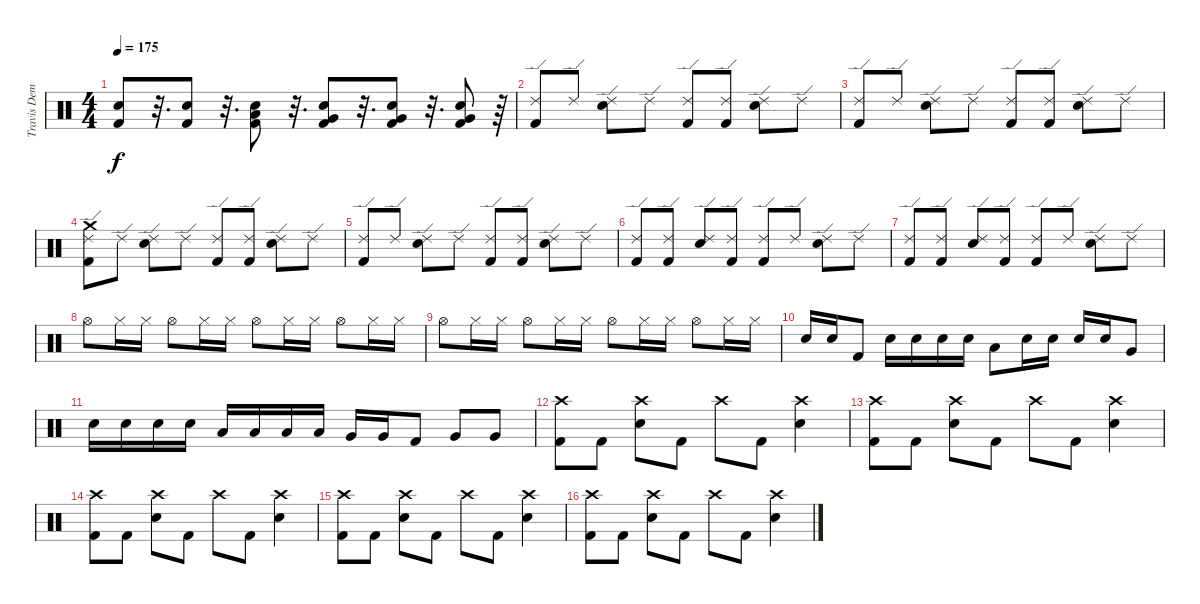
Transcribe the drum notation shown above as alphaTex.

\track ("Travis Dempsey" "Travis Dem") {instrument percussion}
\staff {score}
\articulation defaults
\ts (4 4)
\tempo 175
\clef neutral
\ks c
("Electric Snare (hit)" "Kick (hit) 2").8{dy f} r.32{d} ("Electric Snare (hit)" "Kick (hit) 2").8 r.32{d} ("Low Tom (hit)" "Electric Snare (hit)" "Kick (hit) 2").8 r.32{d} ("Very Low Tom (hit)" "Electric Snare (hit)" "Kick (hit) 2").8 r.32{d} ("Very Low Tom (hit)" "Electric Snare (hit)" "Kick (hit) 2").8 r.32{d} ("Very Low Tom (hit)" "Electric Snare (hit)" "Kick (hit) 2").8 r.64 |
("Ride (edge) 2" "Kick (hit) 2").8 "Ride (edge) 2".8 ("Ride (edge) 2" "Electric Snare (hit)").8 "Ride (edge) 2".8 ("Ride (edge) 2" "Kick (hit) 2").8 ("Ride (edge) 2" "Kick (hit) 2").8 ("Ride (edge) 2" "Electric Snare (hit)").8 "Ride (edge) 2".8 |
("Ride (edge) 2" "Kick (hit) 2").8 "Ride (edge) 2".8 ("Ride (edge) 2" "Electric Snare (hit)").8 "Ride (edge) 2".8 ("Ride (edge) 2" "Kick (hit) 2").8 ("Ride (edge) 2" "Kick (hit) 2").8 ("Ride (edge) 2" "Electric Snare (hit)").8 "Ride (edge) 2".8 |
("Crash medium (hit)" "Ride (edge) 2" "Kick (hit) 2").8 "Ride (edge) 2".8 ("Ride (edge) 2" "Electric Snare (hit)").8 "Ride (edge) 2".8 ("Ride (edge) 2" "Kick (hit) 2").8 ("Ride (edge) 2" "Kick (hit) 2").8 ("Ride (edge) 2" "Electric Snare (hit)").8 "Ride (edge) 2".8 |
("Ride (edge) 2" "Kick (hit) 2").8 "Ride (edge) 2".8 ("Ride (edge) 2" "Electric Snare (hit)").8 "Ride (edge) 2".8 ("Ride (edge) 2" "Kick (hit) 2").8 ("Ride (edge) 2" "Kick (hit) 2").8 ("Ride (edge) 2" "Electric Snare (hit)").8 "Ride (edge) 2".8 |
("Ride (edge) 2" "Kick (hit) 2").8 ("Ride (edge) 2" "Kick (hit) 2").8 ("Ride (edge) 2" "Electric Snare (hit)").8 ("Ride (edge) 2" "Kick (hit) 2").8 ("Ride (edge) 2" "Kick (hit) 2").8 "Ride (edge) 2".8 ("Ride (edge) 2" "Electric Snare (hit)").8 "Ride (edge) 2".8 |
("Ride (edge) 2" "Kick (hit) 2").8 ("Ride (edge) 2" "Kick (hit) 2").8 ("Ride (edge) 2" "Electric Snare (hit)").8 ("Ride (edge) 2" "Kick (hit) 2").8 ("Ride (edge) 2" "Kick (hit) 2").8 "Ride (edge) 2".8 ("Ride (edge) 2" "Electric Snare (hit)").8 "Ride (edge) 2".8 |
"Hi-Hat (open)".8 "Hi-Hat (closed)".16 "Hi-Hat (closed)".16 "Hi-Hat (open)".8 "Hi-Hat (closed)".16 "Hi-Hat (closed)".16 "Hi-Hat (open)".8 "Hi-Hat (closed)".16 "Hi-Hat (closed)".16 "Hi-Hat (open)".8 "Hi-Hat (closed)".16 "Hi-Hat (closed)".16 |
"Hi-Hat (open)".8 "Hi-Hat (closed)".16 "Hi-Hat (closed)".16 "Hi-Hat (open)".8 "Hi-Hat (closed)".16 "Hi-Hat (closed)".16 "Hi-Hat (open)".8 "Hi-Hat (closed)".16 "Hi-Hat (closed)".16 "Hi-Hat (open)".8 "Hi-Hat (closed)".16 "Hi-Hat (closed)".16 |
"Electric Snare (hit)".16 "Electric Snare (hit)".16 "Kick (hit) 2".8 "Electric Snare (hit)".16 "Electric Snare (hit)".16 "Electric Snare (hit)".16 "Electric Snare (hit)".16 "Low Tom (hit)".8 "Electric Snare (hit)".16 "Electric Snare (hit)".16 "Electric Snare (hit)".16 "Electric Snare (hit)".16 "Very Low Tom (hit)".8 |
"Electric Snare (hit)".16 "Electric Snare (hit)".16 "Electric Snare (hit)".16 "Electric Snare (hit)".16 "Low Tom (hit)".16 "Low Tom (hit)".16 "Low Tom (hit)".16 "Low Tom (hit)".16 "Very Low Tom (hit)".16 "Very Low Tom (hit)".16 "Kick (hit) 2".8 "Very Low Tom (hit)".8 "Very Low Tom (hit)".8 |
("Crash high (hit)" "Kick (hit) 2").8 "Kick (hit) 2".8 ("Crash high (hit)" "Electric Snare (hit)").8 "Kick (hit) 2".8 "Crash high (hit)".8 "Kick (hit) 2".8 ("Crash high (hit)" "Electric Snare (hit)").4 |
("Crash high (hit)" "Kick (hit) 2").8 "Kick (hit) 2".8 ("Crash high (hit)" "Electric Snare (hit)").8 "Kick (hit) 2".8 "Crash high (hit)".8 "Kick (hit) 2".8 ("Crash high (hit)" "Electric Snare (hit)").4 |
("Crash high (hit)" "Kick (hit) 2").8 "Kick (hit) 2".8 ("Crash high (hit)" "Electric Snare (hit)").8 "Kick (hit) 2".8 "Crash high (hit)".8 "Kick (hit) 2".8 ("Crash high (hit)" "Electric Snare (hit)").4 |
("Crash high (hit)" "Kick (hit) 2").8 "Kick (hit) 2".8 ("Crash high (hit)" "Electric Snare (hit)").8 "Kick (hit) 2".8 "Crash high (hit)".8 "Kick (hit) 2".8 ("Crash high (hit)" "Electric Snare (hit)").4 |
("Crash high (hit)" "Kick (hit) 2").8 "Kick (hit) 2".8 ("Crash high (hit)" "Electric Snare (hit)").8 "Kick (hit) 2".8 "Crash high (hit)".8 "Kick (hit) 2".8 ("Crash high (hit)" "Electric Snare (hit)").4
